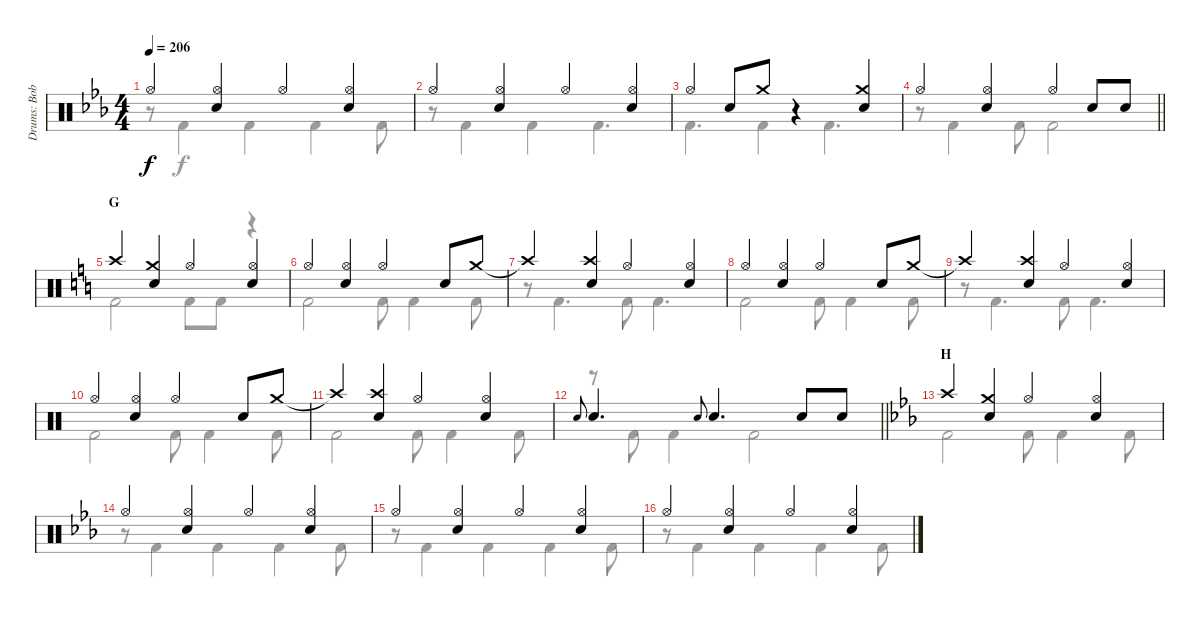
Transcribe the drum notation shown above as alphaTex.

\track ("Drums: Bobby" "Drums: Bob") {instrument percussion}
\staff {score}
\articulation defaults
\voice
\ts (4 4)
\tempo 206
\clef neutral
\ks eb "Hi-Hat (open)".4{dy f}
("Hi-Hat (open)" "Snare (hit) 2").4 "Hi-Hat (open)".4 ("Hi-Hat (open)" "Snare (hit) 2").4 |
"Hi-Hat (open)".4 ("Hi-Hat (open)" "Snare (hit) 2").4 "Hi-Hat (open)".4 ("Hi-Hat (open)" "Snare (hit) 2").4 |
"Hi-Hat (open)".4 "Snare (hit) 2".8 "Crash medium (hit)".8 r.4 ("Crash medium (hit)" "Snare (hit) 2").4 |
\barLineRight lightlight "Hi-Hat (open)".4
("Hi-Hat (open)" "Snare (hit) 2").4 "Hi-Hat (open)".4 "Snare (hit) 2".8 "Snare (hit) 2".8 |
\section ("" "G")
\ks c "Crash high (hit)".4
("Crash medium (hit)" "Snare (hit) 2").4 "Hi-Hat (open)".4 ("Hi-Hat (open)" "Snare (hit) 2").4 |
"Hi-Hat (open)".4 ("Hi-Hat (open)" "Snare (hit) 2").4 "Hi-Hat (open)".4 "Snare (hit) 2".8 "Crash medium (hit)".8 |
"Crash high (hit)"{t}.4 ("Crash high (hit)" "Snare (hit) 2").4 "Hi-Hat (open)".4 ("Hi-Hat (open)" "Snare (hit) 2").4 |
"Hi-Hat (open)".4 ("Hi-Hat (open)" "Snare (hit) 2").4 "Hi-Hat (open)".4 "Snare (hit) 2".8 "Crash medium (hit)".8 |
"Crash high (hit)"{t}.4 ("Crash high (hit)" "Snare (hit) 2").4 "Hi-Hat (open)".4 ("Hi-Hat (open)" "Snare (hit) 2").4 |
"Hi-Hat (open)".4 ("Hi-Hat (open)" "Snare (hit) 2").4 "Hi-Hat (open)".4 "Snare (hit) 2".8 "Crash medium (hit)".8 |
"Crash high (hit)"{t}.4 ("Crash high (hit)" "Snare (hit) 2").4 "Hi-Hat (open)".4 ("Hi-Hat (open)" "Snare (hit) 2").4 |
\barLineRight lightlight "Electric Snare (hit)".8{gr onbeat} "Snare (hit) 2".4{d} "Electric Snare (hit)".8{gr onbeat} "Snare (hit) 2".4{d beam merge} "Snare (hit) 2".8 "Snare (hit) 2".8
|
\section ("" "H")
\ks eb "Crash high (hit)".4
("Crash medium (hit)" "Snare (hit) 2").4 "Hi-Hat (open)".4 ("Hi-Hat (open)" "Snare (hit) 2").4 |
"Hi-Hat (open)".4 ("Hi-Hat (open)" "Snare (hit) 2").4 "Hi-Hat (open)".4 ("Hi-Hat (open)" "Snare (hit) 2").4 |
"Hi-Hat (open)".4 ("Hi-Hat (open)" "Snare (hit) 2").4 "Hi-Hat (open)".4 ("Hi-Hat (open)" "Snare (hit) 2").4 |
"Hi-Hat (open)".4 ("Hi-Hat (open)" "Snare (hit) 2").4 "Hi-Hat (open)".4 ("Hi-Hat (open)" "Snare (hit) 2").4
\voice
\clef neutral
\ottava regular
\simile none
\ks eb
r.8{dy f} "Kick (hit) 2".4 "Kick (hit) 2".4 "Kick (hit) 2".4 "Kick (hit) 2".8 |
r.8 "Kick (hit) 2".4 "Kick (hit) 2".4 "Kick (hit) 2".4{d} |
"Kick (hit) 2".4{d} "Kick (hit) 2".4 "Kick (hit) 2".4{d} |
\barLineRight lightlight
r.8 "Kick (hit) 2".4 "Kick (hit) 2".8 "Kick (hit) 2".2 |
\ks c "Kick (hit) 2".2 "Kick (hit) 2".8 "Kick (hit) 2".8
r.4 |
"Kick (hit) 2".2 "Kick (hit) 2".8 "Kick (hit) 2".4 "Kick (hit) 2".8 |
r.8 "Kick (hit) 2".4{d} "Kick (hit) 2".8 "Kick (hit) 2".4{d} |
"Kick (hit) 2".2 "Kick (hit) 2".8 "Kick (hit) 2".4 "Kick (hit) 2".8 |
r.8 "Kick (hit) 2".4{d} "Kick (hit) 2".8 "Kick (hit) 2".4{d} |
"Kick (hit) 2".2 "Kick (hit) 2".8 "Kick (hit) 2".4 "Kick (hit) 2".8 |
"Kick (hit) 2".2 "Kick (hit) 2".8 "Kick (hit) 2".4 "Kick (hit) 2".8 |
\barLineRight lightlight
r.8 "Kick (hit) 2".8 "Kick (hit) 2".4 "Kick (hit) 2".2 |
\ks eb "Kick (hit) 2".2 "Kick (hit) 2".8 "Kick (hit) 2".4 "Kick (hit) 2".8
|
r.8 "Kick (hit) 2".4 "Kick (hit) 2".4 "Kick (hit) 2".4 "Kick (hit) 2".8 |
r.8 "Kick (hit) 2".4 "Kick (hit) 2".4 "Kick (hit) 2".4 "Kick (hit) 2".8 |
r.8 "Kick (hit) 2".4 "Kick (hit) 2".4 "Kick (hit) 2".4 "Kick (hit) 2".8
